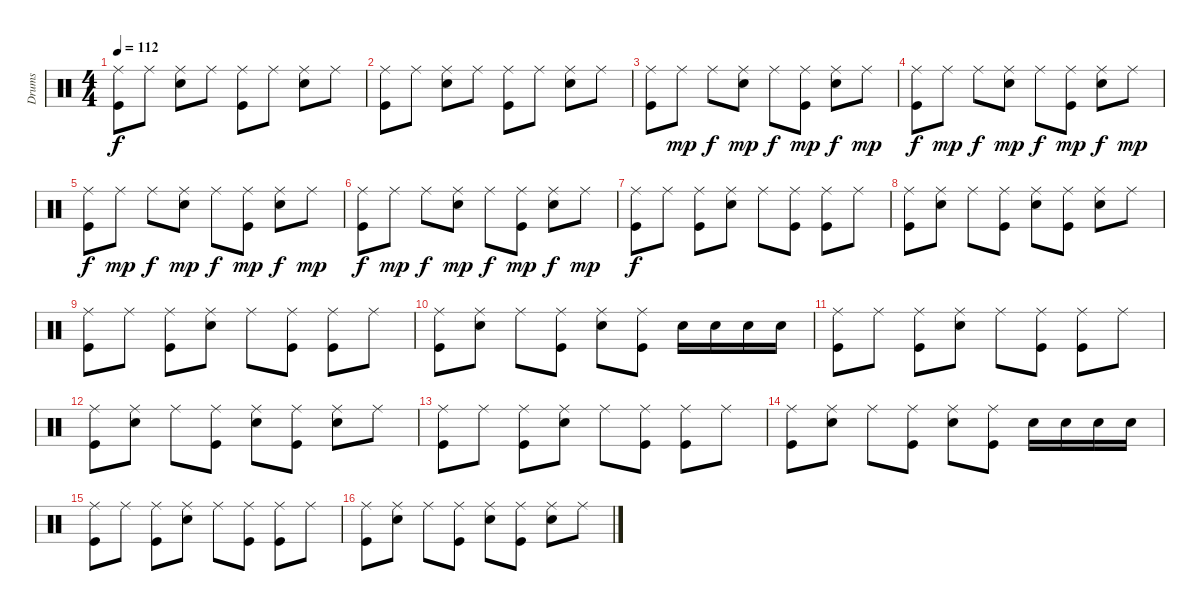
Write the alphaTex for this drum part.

\track ("Drums" "Drums") {instrument percussion}
\staff {score}
\articulation defaults
\ts (4 4)
\tempo 112
\clef neutral
\ks c
("Ride (middle)" "Kick (hit)").8{dy f} "Ride (middle)".8 ("Ride (middle)" "Snare (hit) 2").8 "Ride (middle)".8 ("Ride (middle)" "Kick (hit)").8 "Ride (middle)".8 ("Ride (middle)" "Snare (hit) 2").8 "Ride (middle)".8 |
("Ride (middle)" "Kick (hit)").8 "Ride (middle)".8 ("Ride (middle)" "Snare (hit) 2").8 "Ride (middle)".8 ("Ride (middle)" "Kick (hit)").8 "Ride (middle)".8 ("Ride (middle)" "Snare (hit) 2").8 "Ride (middle)".8 |
("Ride (middle)" "Kick (hit)").8 "Ride (middle)".8{dy mp} "Ride (middle)".8{dy f} ("Ride (middle)" "Snare (hit) 2").8{dy mp} "Ride (middle)".8{dy f} ("Ride (middle)" "Kick (hit)").8{dy mp} ("Ride (middle)" "Snare (hit) 2").8{dy f} "Ride (middle)".8{dy mp} |
("Ride (middle)" "Kick (hit)").8{dy f} "Ride (middle)".8{dy mp} "Ride (middle)".8{dy f} ("Ride (middle)" "Snare (hit) 2").8{dy mp} "Ride (middle)".8{dy f} ("Ride (middle)" "Kick (hit)").8{dy mp} ("Ride (middle)" "Snare (hit) 2").8{dy f} "Ride (middle)".8{dy mp} |
("Ride (middle)" "Kick (hit)").8{dy f} "Ride (middle)".8{dy mp} "Ride (middle)".8{dy f} ("Ride (middle)" "Snare (hit) 2").8{dy mp} "Ride (middle)".8{dy f} ("Ride (middle)" "Kick (hit)").8{dy mp} ("Ride (middle)" "Snare (hit) 2").8{dy f} "Ride (middle)".8{dy mp} |
("Ride (middle)" "Kick (hit)").8{dy f} "Ride (middle)".8{dy mp} "Ride (middle)".8{dy f} ("Ride (middle)" "Snare (hit) 2").8{dy mp} "Ride (middle)".8{dy f} ("Ride (middle)" "Kick (hit)").8{dy mp} ("Ride (middle)" "Snare (hit) 2").8{dy f} "Ride (middle)".8{dy mp} |
("Ride (middle)" "Kick (hit)").8{dy f} "Ride (middle)".8 ("Ride (middle)" "Kick (hit)").8 ("Ride (middle)" "Snare (hit) 2").8 "Ride (middle)".8 ("Ride (middle)" "Kick (hit)").8 ("Ride (middle)" "Kick (hit)").8 "Ride (middle)".8 |
("Ride (middle)" "Kick (hit)").8 ("Ride (middle)" "Snare (hit) 2").8 "Ride (middle)".8 ("Ride (middle)" "Kick (hit)").8 ("Ride (middle)" "Snare (hit) 2").8 ("Ride (middle)" "Kick (hit)").8 ("Ride (middle)" "Snare (hit) 2").8 "Ride (middle)".8 |
("Ride (middle)" "Kick (hit)").8 "Ride (middle)".8 ("Ride (middle)" "Kick (hit)").8 ("Ride (middle)" "Snare (hit) 2").8 "Ride (middle)".8 ("Ride (middle)" "Kick (hit)").8 ("Ride (middle)" "Kick (hit)").8 "Ride (middle)".8 |
("Ride (middle)" "Kick (hit)").8 ("Ride (middle)" "Snare (hit) 2").8 "Ride (middle)".8 ("Ride (middle)" "Kick (hit)").8 ("Ride (middle)" "Snare (hit) 2").8 ("Ride (middle)" "Kick (hit)").8 "Snare (hit) 2".16 "Snare (hit) 2".16 "Snare (hit) 2".16 "Snare (hit) 2".16 |
("Ride (middle)" "Kick (hit)").8 "Ride (middle)".8 ("Ride (middle)" "Kick (hit)").8 ("Ride (middle)" "Snare (hit) 2").8 "Ride (middle)".8 ("Ride (middle)" "Kick (hit)").8 ("Ride (middle)" "Kick (hit)").8 "Ride (middle)".8 |
("Ride (middle)" "Kick (hit)").8 ("Ride (middle)" "Snare (hit) 2").8 "Ride (middle)".8 ("Ride (middle)" "Kick (hit)").8 ("Ride (middle)" "Snare (hit) 2").8 ("Ride (middle)" "Kick (hit)").8 ("Ride (middle)" "Snare (hit) 2").8 "Ride (middle)".8 |
("Ride (middle)" "Kick (hit)").8 "Ride (middle)".8 ("Ride (middle)" "Kick (hit)").8 ("Ride (middle)" "Snare (hit) 2").8 "Ride (middle)".8 ("Ride (middle)" "Kick (hit)").8 ("Ride (middle)" "Kick (hit)").8 "Ride (middle)".8 |
("Ride (middle)" "Kick (hit)").8 ("Ride (middle)" "Snare (hit) 2").8 "Ride (middle)".8 ("Ride (middle)" "Kick (hit)").8 ("Ride (middle)" "Snare (hit) 2").8 ("Ride (middle)" "Kick (hit)").8 "Snare (hit) 2".16 "Snare (hit) 2".16 "Snare (hit) 2".16 "Snare (hit) 2".16 |
("Ride (middle)" "Kick (hit)").8 "Ride (middle)".8 ("Ride (middle)" "Kick (hit)").8 ("Ride (middle)" "Snare (hit) 2").8 "Ride (middle)".8 ("Ride (middle)" "Kick (hit)").8 ("Ride (middle)" "Kick (hit)").8 "Ride (middle)".8 |
("Ride (middle)" "Kick (hit)").8 ("Ride (middle)" "Snare (hit) 2").8 "Ride (middle)".8 ("Ride (middle)" "Kick (hit)").8 ("Ride (middle)" "Snare (hit) 2").8 ("Ride (middle)" "Kick (hit)").8 ("Ride (middle)" "Snare (hit) 2").8 "Ride (middle)".8
